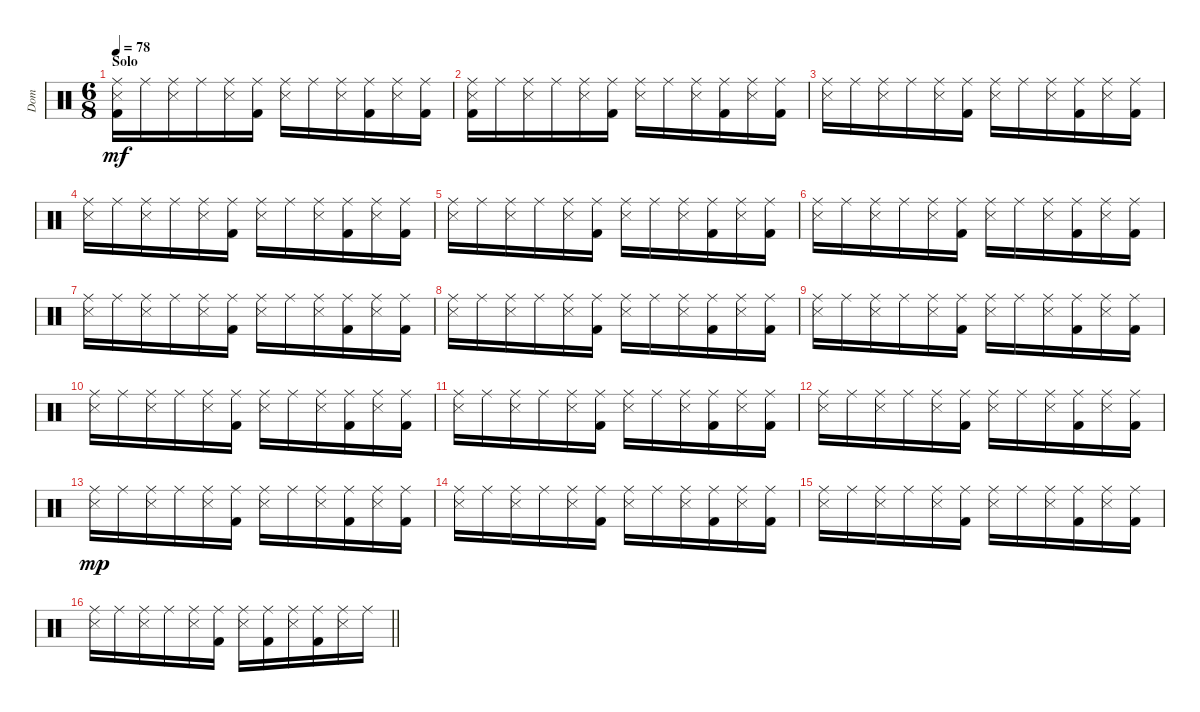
\track ("Dom" "Dom") {instrument percussion}
\staff {score}
\articulation defaults
\ts (6 8)
\section ("" "Solo")
\tempo 78
\clef neutral
\ks c
("Ride (middle)" "Snare (side stick) 3" "Kick (hit) 2").16{dy mf} "Ride (middle)".16 ("Ride (middle)" "Snare (side stick) 3").16 "Ride (middle)".16 ("Ride (middle)" "Snare (side stick) 3").16 ("Ride (middle)" "Kick (hit) 2").16 ("Ride (middle)" "Snare (side stick) 3").16 "Ride (middle)".16 ("Ride (middle)" "Snare (side stick) 3").16 ("Ride (middle)" "Kick (hit) 2").16 ("Ride (middle)" "Snare (side stick) 3").16 ("Ride (middle)" "Kick (hit) 2").16 |
("Ride (middle)" "Snare (side stick) 3" "Kick (hit) 2").16 "Ride (middle)".16 ("Ride (middle)" "Snare (side stick) 3").16 "Ride (middle)".16 ("Ride (middle)" "Snare (side stick) 3").16 ("Ride (middle)" "Kick (hit) 2").16 ("Ride (middle)" "Snare (side stick) 3").16 "Ride (middle)".16 ("Ride (middle)" "Snare (side stick) 3").16 ("Ride (middle)" "Kick (hit) 2").16 ("Ride (middle)" "Snare (side stick) 3").16 ("Ride (middle)" "Kick (hit) 2").16 |
("Ride (middle)" "Snare (side stick) 3").16 "Ride (middle)".16 ("Ride (middle)" "Snare (side stick) 3").16 "Ride (middle)".16 ("Ride (middle)" "Snare (side stick) 3").16 ("Ride (middle)" "Kick (hit) 2").16 ("Ride (middle)" "Snare (side stick) 3").16 "Ride (middle)".16 ("Ride (middle)" "Snare (side stick) 3").16 ("Ride (middle)" "Kick (hit) 2").16 ("Ride (middle)" "Snare (side stick) 3").16 ("Ride (middle)" "Kick (hit) 2").16 |
("Ride (middle)" "Snare (side stick) 3").16 "Ride (middle)".16 ("Ride (middle)" "Snare (side stick) 3").16 "Ride (middle)".16 ("Ride (middle)" "Snare (side stick) 3").16 ("Ride (middle)" "Kick (hit) 2").16 ("Ride (middle)" "Snare (side stick) 3").16 "Ride (middle)".16 ("Ride (middle)" "Snare (side stick) 3").16 ("Ride (middle)" "Kick (hit) 2").16 ("Ride (middle)" "Snare (side stick) 3").16 ("Ride (middle)" "Kick (hit) 2").16 |
("Ride (middle)" "Snare (side stick) 3").16 "Ride (middle)".16 ("Ride (middle)" "Snare (side stick) 3").16 "Ride (middle)".16 ("Ride (middle)" "Snare (side stick) 3").16 ("Ride (middle)" "Kick (hit) 2").16 ("Ride (middle)" "Snare (side stick) 3").16 "Ride (middle)".16 ("Ride (middle)" "Snare (side stick) 3").16 ("Ride (middle)" "Kick (hit) 2").16 ("Ride (middle)" "Snare (side stick) 3").16 ("Ride (middle)" "Kick (hit) 2").16 |
("Ride (middle)" "Snare (side stick) 3").16 "Ride (middle)".16 ("Ride (middle)" "Snare (side stick) 3").16 "Ride (middle)".16 ("Ride (middle)" "Snare (side stick) 3").16 ("Ride (middle)" "Kick (hit) 2").16 ("Ride (middle)" "Snare (side stick) 3").16 "Ride (middle)".16 ("Ride (middle)" "Snare (side stick) 3").16 ("Ride (middle)" "Kick (hit) 2").16 ("Ride (middle)" "Snare (side stick) 3").16 ("Ride (middle)" "Kick (hit) 2").16 |
("Ride (middle)" "Snare (side stick) 3").16 "Ride (middle)".16 ("Ride (middle)" "Snare (side stick) 3").16 "Ride (middle)".16 ("Ride (middle)" "Snare (side stick) 3").16 ("Ride (middle)" "Kick (hit) 2").16 ("Ride (middle)" "Snare (side stick) 3").16 "Ride (middle)".16 ("Ride (middle)" "Snare (side stick) 3").16 ("Ride (middle)" "Kick (hit) 2").16 ("Ride (middle)" "Snare (side stick) 3").16 ("Ride (middle)" "Kick (hit) 2").16 |
("Ride (middle)" "Snare (side stick) 3").16 "Ride (middle)".16 ("Ride (middle)" "Snare (side stick) 3").16 "Ride (middle)".16 ("Ride (middle)" "Snare (side stick) 3").16 ("Ride (middle)" "Kick (hit) 2").16 ("Ride (middle)" "Snare (side stick) 3").16 "Ride (middle)".16 ("Ride (middle)" "Snare (side stick) 3").16 ("Ride (middle)" "Kick (hit) 2").16 ("Ride (middle)" "Snare (side stick) 3").16 ("Ride (middle)" "Kick (hit) 2").16 |
("Ride (middle)" "Snare (side stick) 3").16 "Ride (middle)".16 ("Ride (middle)" "Snare (side stick) 3").16 "Ride (middle)".16 ("Ride (middle)" "Snare (side stick) 3").16 ("Ride (middle)" "Kick (hit) 2").16 ("Ride (middle)" "Snare (side stick) 3").16 "Ride (middle)".16 ("Ride (middle)" "Snare (side stick) 3").16 ("Ride (middle)" "Kick (hit) 2").16 ("Ride (middle)" "Snare (side stick) 3").16 ("Ride (middle)" "Kick (hit) 2").16 |
("Ride (middle)" "Snare (side stick) 3").16 "Ride (middle)".16 ("Ride (middle)" "Snare (side stick) 3").16 "Ride (middle)".16 ("Ride (middle)" "Snare (side stick) 3").16 ("Ride (middle)" "Kick (hit) 2").16 ("Ride (middle)" "Snare (side stick) 3").16 "Ride (middle)".16 ("Ride (middle)" "Snare (side stick) 3").16 ("Ride (middle)" "Kick (hit) 2").16 ("Ride (middle)" "Snare (side stick) 3").16 ("Ride (middle)" "Kick (hit) 2").16 |
("Ride (middle)" "Snare (side stick) 3").16 "Ride (middle)".16 ("Ride (middle)" "Snare (side stick) 3").16 "Ride (middle)".16 ("Ride (middle)" "Snare (side stick) 3").16 ("Ride (middle)" "Kick (hit) 2").16 ("Ride (middle)" "Snare (side stick) 3").16 "Ride (middle)".16 ("Ride (middle)" "Snare (side stick) 3").16 ("Ride (middle)" "Kick (hit) 2").16 ("Ride (middle)" "Snare (side stick) 3").16 ("Ride (middle)" "Kick (hit) 2").16 |
("Ride (middle)" "Snare (side stick) 3").16 "Ride (middle)".16 ("Ride (middle)" "Snare (side stick) 3").16 "Ride (middle)".16 ("Ride (middle)" "Snare (side stick) 3").16 ("Ride (middle)" "Kick (hit) 2").16 ("Ride (middle)" "Snare (side stick) 3").16 "Ride (middle)".16 ("Ride (middle)" "Snare (side stick) 3").16 ("Ride (middle)" "Kick (hit) 2").16 ("Ride (middle)" "Snare (side stick) 3").16 ("Ride (middle)" "Kick (hit) 2").16 |
("Ride (middle)" "Snare (side stick) 3").16{dy mp} "Ride (middle)".16 ("Ride (middle)" "Snare (side stick) 3").16 "Ride (middle)".16 ("Ride (middle)" "Snare (side stick) 3").16 ("Ride (middle)" "Kick (hit) 2").16 ("Ride (middle)" "Snare (side stick) 3").16 "Ride (middle)".16 ("Ride (middle)" "Snare (side stick) 3").16 ("Ride (middle)" "Kick (hit) 2").16 ("Ride (middle)" "Snare (side stick) 3").16 ("Ride (middle)" "Kick (hit) 2").16 |
("Ride (middle)" "Snare (side stick) 3").16 "Ride (middle)".16 ("Ride (middle)" "Snare (side stick) 3").16 "Ride (middle)".16 ("Ride (middle)" "Snare (side stick) 3").16 ("Ride (middle)" "Kick (hit) 2").16 ("Ride (middle)" "Snare (side stick) 3").16 "Ride (middle)".16 ("Ride (middle)" "Snare (side stick) 3").16 ("Ride (middle)" "Kick (hit) 2").16 ("Ride (middle)" "Snare (side stick) 3").16 ("Ride (middle)" "Kick (hit) 2").16 |
("Ride (middle)" "Snare (side stick) 3").16 "Ride (middle)".16 ("Ride (middle)" "Snare (side stick) 3").16 "Ride (middle)".16 ("Ride (middle)" "Snare (side stick) 3").16 ("Ride (middle)" "Kick (hit) 2").16 ("Ride (middle)" "Snare (side stick) 3").16 "Ride (middle)".16 ("Ride (middle)" "Snare (side stick) 3").16 ("Ride (middle)" "Kick (hit) 2").16 ("Ride (middle)" "Snare (side stick) 3").16 ("Ride (middle)" "Kick (hit) 2").16 |
\barLineRight lightlight
("Ride (middle)" "Snare (side stick) 3").16 "Ride (middle)".16 ("Ride (middle)" "Snare (side stick) 3").16 "Ride (middle)".16 ("Ride (middle)" "Snare (side stick) 3").16 ("Ride (middle)" "Kick (hit) 2").16 ("Ride (middle)" "Snare (side stick) 3").16 ("Ride (middle)" "Kick (hit) 2").16 ("Ride (middle)" "Snare (side stick) 3").16 ("Ride (middle)" "Kick (hit) 2").16 ("Ride (middle)" "Snare (side stick) 3").16 "Ride (middle)".16
